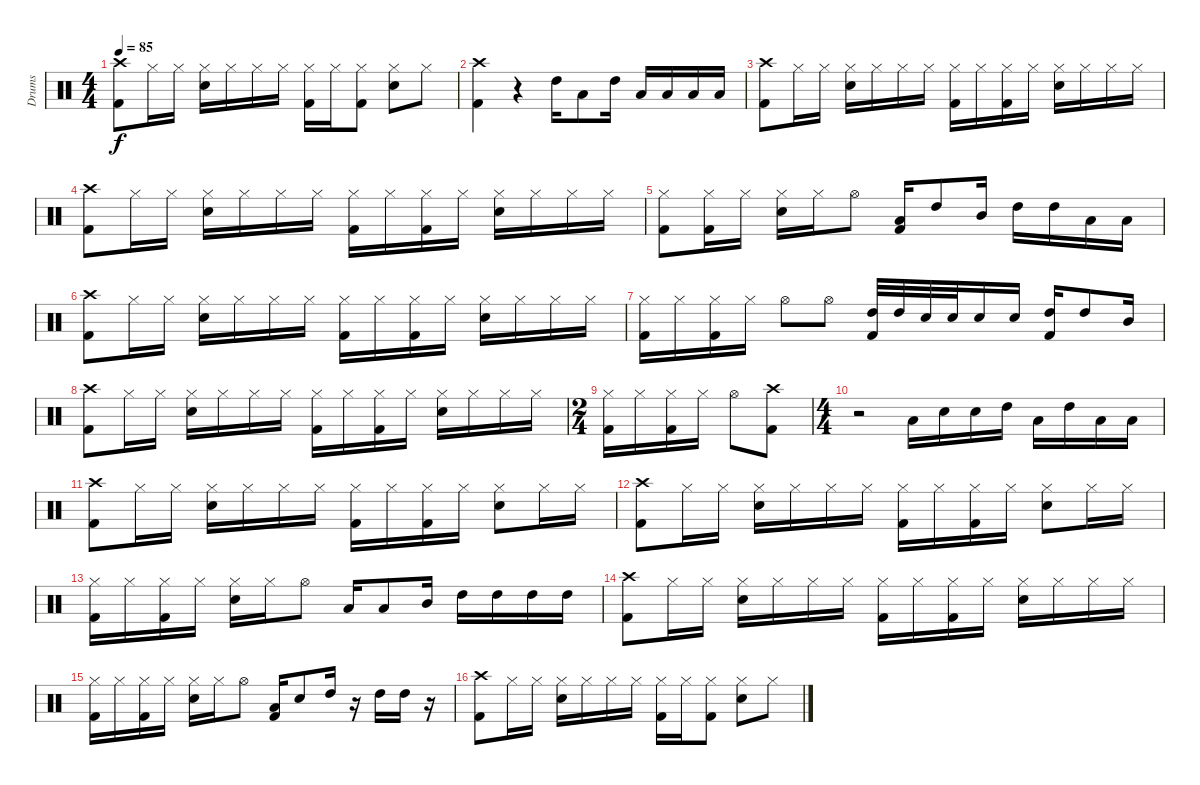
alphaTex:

\track ("Drums" "Drums") {instrument percussion}
\staff {score}
\articulation defaults
\ts (4 4)
\tempo 85
\clef neutral
\ks c
("Crash high (hit)" "Kick (hit) 2").8{dy f} "Hi-Hat (closed)".16 "Hi-Hat (closed)".16 ("Hi-Hat (closed)" "Snare (hit) 2").16 "Hi-Hat (closed)".16 "Hi-Hat (closed)".16 "Hi-Hat (closed)".16 ("Hi-Hat (closed)" "Kick (hit) 2").16 "Hi-Hat (closed)".16 ("Hi-Hat (closed)" "Kick (hit) 2").8 ("Hi-Hat (closed)" "Snare (hit) 2").8 "Hi-Hat (closed)".8 |
("Crash high (hit)" "Kick (hit) 2").4 r.4 "High Tom (hit)".16 "Low Tom (hit)".8 "High Tom (hit)".16 "Low Tom (hit)".16 "Low Tom (hit)".16 "Low Tom (hit)".16 "Low Tom (hit)".16 |
("Crash high (hit)" "Kick (hit) 2").8 "Hi-Hat (closed)".16 "Hi-Hat (closed)".16 ("Hi-Hat (closed)" "Snare (hit) 2").16 "Hi-Hat (closed)".16 "Hi-Hat (closed)".16 "Hi-Hat (closed)".16 ("Hi-Hat (closed)" "Kick (hit) 2").16 "Hi-Hat (closed)".16 ("Hi-Hat (closed)" "Kick (hit) 2").16 "Hi-Hat (closed)".16 ("Hi-Hat (closed)" "Snare (hit) 2").16 "Hi-Hat (closed)".16 "Hi-Hat (closed)".16 "Hi-Hat (closed)".16 |
("Crash high (hit)" "Kick (hit) 2").8 "Hi-Hat (closed)".16 "Hi-Hat (closed)".16 ("Hi-Hat (closed)" "Snare (hit) 2").16 "Hi-Hat (closed)".16 "Hi-Hat (closed)".16 "Hi-Hat (closed)".16 ("Hi-Hat (closed)" "Kick (hit) 2").16 "Hi-Hat (closed)".16 ("Hi-Hat (closed)" "Kick (hit) 2").16 "Hi-Hat (closed)".16 ("Hi-Hat (closed)" "Snare (hit) 2").16 "Hi-Hat (closed)".16 "Hi-Hat (closed)".16 "Hi-Hat (closed)".16 |
("Hi-Hat (closed)" "Kick (hit) 2").8 ("Hi-Hat (closed)" "Kick (hit) 2").16 "Hi-Hat (closed)".16 ("Hi-Hat (closed)" "Snare (hit) 2").16 "Hi-Hat (closed)".16 "Hi-Hat (open)".8 ("Low Tom (hit)" "Kick (hit) 2").16 "High Tom (hit)".8 "Mid Tom (hit)".16 "High Tom (hit)".16 "High Tom (hit)".16 "Low Tom (hit)".16 "Low Tom (hit)".16 |
("Crash high (hit)" "Kick (hit) 2").8 "Hi-Hat (closed)".16 "Hi-Hat (closed)".16 ("Hi-Hat (closed)" "Snare (hit) 2").16 "Hi-Hat (closed)".16 "Hi-Hat (closed)".16 "Hi-Hat (closed)".16 ("Hi-Hat (closed)" "Kick (hit) 2").16 "Hi-Hat (closed)".16 ("Hi-Hat (closed)" "Kick (hit) 2").16 "Hi-Hat (closed)".16 ("Hi-Hat (closed)" "Snare (hit) 2").16 "Hi-Hat (closed)".16 "Hi-Hat (closed)".16 "Hi-Hat (closed)".16 |
("Hi-Hat (closed)" "Kick (hit) 2").16 "Hi-Hat (closed)".16 ("Hi-Hat (closed)" "Kick (hit) 2").16 "Hi-Hat (closed)".16 "Hi-Hat (open)".8 "Hi-Hat (open)".8 ("High Tom (hit)" "Kick (hit) 2").32 "High Tom (hit)".32 "Snare (hit) 2".32 "Snare (hit) 2".32 "Snare (hit) 2".16 "Snare (hit) 2".16 ("High Tom (hit)" "Kick (hit) 2").16 "High Tom (hit)".8 "Mid Tom (hit)".16 |
("Crash high (hit)" "Kick (hit) 2").8 "Hi-Hat (closed)".16 "Hi-Hat (closed)".16 ("Hi-Hat (closed)" "Snare (hit) 2").16 "Hi-Hat (closed)".16 "Hi-Hat (closed)".16 "Hi-Hat (closed)".16 ("Hi-Hat (closed)" "Kick (hit) 2").16 "Hi-Hat (closed)".16 ("Hi-Hat (closed)" "Kick (hit) 2").16 "Hi-Hat (closed)".16 ("Hi-Hat (closed)" "Snare (hit) 2").16 "Hi-Hat (closed)".16 "Hi-Hat (closed)".16 "Hi-Hat (closed)".16 |
\ts (2 4)
("Hi-Hat (closed)" "Kick (hit) 2").16 "Hi-Hat (closed)".16 ("Hi-Hat (closed)" "Kick (hit) 2").16 "Hi-Hat (closed)".16 "Hi-Hat (open)".8 ("Crash high (hit)" "Kick (hit) 2").8 |
\ts (4 4)
r.2 "Low Tom (hit)".16 "Snare (hit) 2".16 "Snare (hit) 2".16 "High Tom (hit)".16 "Low Tom (hit)".16 "High Tom (hit)".16 "Low Tom (hit)".16 "Low Tom (hit)".16 |
("Crash high (hit)" "Kick (hit) 2").8 "Hi-Hat (closed)".16 "Hi-Hat (closed)".16 ("Hi-Hat (closed)" "Snare (hit) 2").16 "Hi-Hat (closed)".16 "Hi-Hat (closed)".16 "Hi-Hat (closed)".16 ("Hi-Hat (closed)" "Kick (hit) 2").16 "Hi-Hat (closed)".16 ("Hi-Hat (closed)" "Kick (hit) 2").16 "Hi-Hat (closed)".16 ("Hi-Hat (closed)" "Snare (hit) 2").8 "Hi-Hat (closed)".16 "Hi-Hat (closed)".16 |
("Crash high (hit)" "Kick (hit) 2").8 "Hi-Hat (closed)".16 "Hi-Hat (closed)".16 ("Hi-Hat (closed)" "Snare (hit) 2").16 "Hi-Hat (closed)".16 "Hi-Hat (closed)".16 "Hi-Hat (closed)".16 ("Hi-Hat (closed)" "Kick (hit) 2").16 "Hi-Hat (closed)".16 ("Hi-Hat (closed)" "Kick (hit) 2").16 "Hi-Hat (closed)".16 ("Hi-Hat (closed)" "Snare (hit) 2").8 "Hi-Hat (closed)".16 "Hi-Hat (closed)".16 |
("Hi-Hat (closed)" "Kick (hit) 2").16 "Hi-Hat (closed)".16 ("Hi-Hat (closed)" "Kick (hit) 2").16 "Hi-Hat (closed)".16 ("Hi-Hat (closed)" "Snare (hit) 2").16 "Hi-Hat (closed)".16 "Hi-Hat (open)".8 "Low Tom (hit)".16 "Low Tom (hit)".8 "Mid Tom (hit)".16 "High Tom (hit)".16 "High Tom (hit)".16 "High Tom (hit)".16 "High Tom (hit)".16 |
("Crash high (hit)" "Kick (hit) 2").8 "Hi-Hat (closed)".16 "Hi-Hat (closed)".16 ("Hi-Hat (closed)" "Snare (hit) 2").16 "Hi-Hat (closed)".16 "Hi-Hat (closed)".16 "Hi-Hat (closed)".16 ("Hi-Hat (closed)" "Kick (hit) 2").16 "Hi-Hat (closed)".16 ("Hi-Hat (closed)" "Kick (hit) 2").16 "Hi-Hat (closed)".16 ("Hi-Hat (closed)" "Snare (hit) 2").16 "Hi-Hat (closed)".16 "Hi-Hat (closed)".16 "Hi-Hat (closed)".16 |
("Hi-Hat (closed)" "Kick (hit) 2").16 "Hi-Hat (closed)".16 ("Hi-Hat (closed)" "Kick (hit) 2").16 "Hi-Hat (closed)".16 ("Hi-Hat (closed)" "Snare (hit) 2").16 "Hi-Hat (closed)".16 "Hi-Hat (open)".8 ("Low Tom (hit)" "Kick (hit) 2").16 "Snare (hit) 2".8 "High Tom (hit)".16 r.16 "High Tom (hit)".16 "High Tom (hit)".16 r.16 |
("Crash high (hit)" "Kick (hit) 2").8 "Hi-Hat (closed)".16 "Hi-Hat (closed)".16 ("Hi-Hat (closed)" "Snare (hit) 2").16 "Hi-Hat (closed)".16 "Hi-Hat (closed)".16 "Hi-Hat (closed)".16 ("Hi-Hat (closed)" "Kick (hit) 2").16 "Hi-Hat (closed)".16 ("Hi-Hat (closed)" "Kick (hit) 2").8 ("Hi-Hat (closed)" "Snare (hit) 2").8 "Hi-Hat (closed)".8
